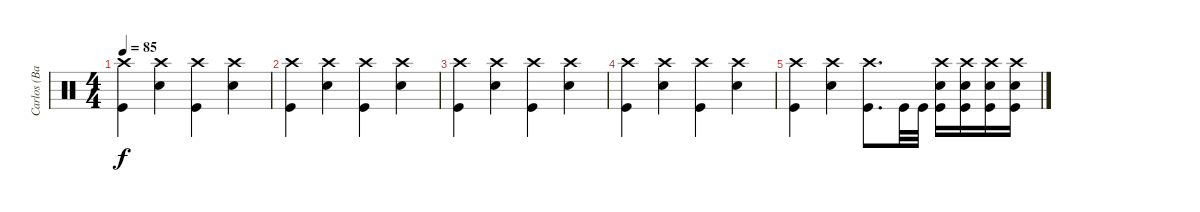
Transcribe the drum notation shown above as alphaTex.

\track ("Carlos (Batería)" "Carlos (Ba") {instrument percussion}
\staff {score}
\articulation defaults
\ts (4 4)
\tempo 85
\clef neutral
\ks c
("Crash high (hit)" "Kick (hit)").4{dy f} ("Crash high (hit)" "Snare (hit) 2").4 ("Crash high (hit)" "Kick (hit)").4 ("Crash high (hit)" "Snare (hit) 2").4 |
("Crash high (hit)" "Kick (hit)").4 ("Crash high (hit)" "Snare (hit) 2").4 ("Crash high (hit)" "Kick (hit)").4 ("Crash high (hit)" "Snare (hit) 2").4 |
("Crash high (hit)" "Kick (hit)").4 ("Crash high (hit)" "Snare (hit) 2").4 ("Crash high (hit)" "Kick (hit)").4 ("Crash high (hit)" "Snare (hit) 2").4 |
("Crash high (hit)" "Kick (hit)").4 ("Crash high (hit)" "Snare (hit) 2").4 ("Crash high (hit)" "Kick (hit)").4 ("Crash high (hit)" "Snare (hit) 2").4 |
("Crash high (hit)" "Kick (hit)").4 ("Crash high (hit)" "Snare (hit) 2").4 ("Crash high (hit)" "Kick (hit)").8{d} "Kick (hit)".32 "Kick (hit)".32 ("Snare (hit) 2" "Crash high (hit)" "Kick (hit)").16 ("Snare (hit) 2" "Crash high (hit)" "Kick (hit)").16 ("Snare (hit) 2" "Crash high (hit)" "Kick (hit)").16 ("Snare (hit) 2" "Crash high (hit)" "Kick (hit)").16
